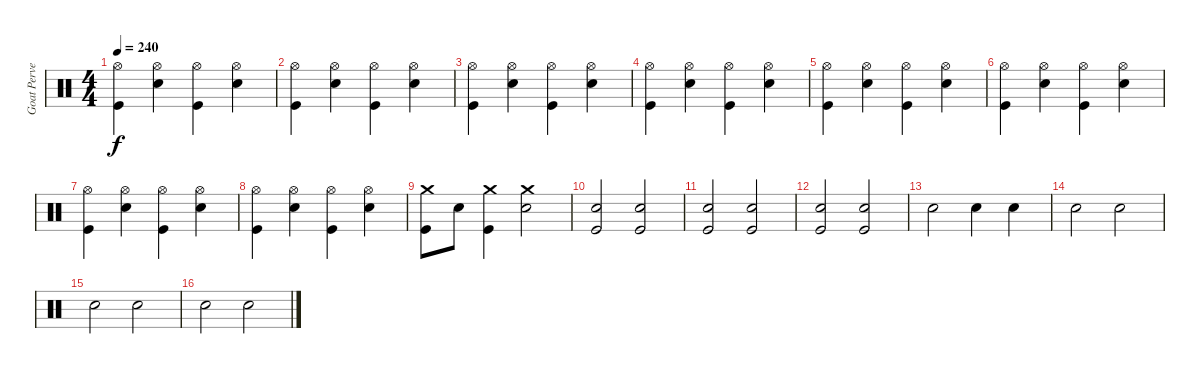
\track ("Goat Pervertor" "Goat Perve") {instrument percussion}
\staff {score}
\articulation defaults
\ts (4 4)
\tempo 240
\clef neutral
\ks c
("Kick (hit)" "Hi-Hat (open)").4{dy f} ("Snare (hit) 2" "Hi-Hat (open)").4 ("Kick (hit)" "Hi-Hat (open)").4 ("Snare (hit) 2" "Hi-Hat (open)").4 |
("Kick (hit)" "Hi-Hat (open)").4 ("Snare (hit) 2" "Hi-Hat (open)").4 ("Kick (hit)" "Hi-Hat (open)").4 ("Snare (hit) 2" "Hi-Hat (open)").4 |
("Kick (hit)" "Hi-Hat (open)").4 ("Snare (hit) 2" "Hi-Hat (open)").4 ("Kick (hit)" "Hi-Hat (open)").4 ("Snare (hit) 2" "Hi-Hat (open)").4 |
("Kick (hit)" "Hi-Hat (open)").4 ("Snare (hit) 2" "Hi-Hat (open)").4 ("Kick (hit)" "Hi-Hat (open)").4 ("Snare (hit) 2" "Hi-Hat (open)").4 |
("Kick (hit)" "Hi-Hat (open)").4 ("Snare (hit) 2" "Hi-Hat (open)").4 ("Kick (hit)" "Hi-Hat (open)").4 ("Snare (hit) 2" "Hi-Hat (open)").4 |
("Kick (hit)" "Hi-Hat (open)").4 ("Snare (hit) 2" "Hi-Hat (open)").4 ("Kick (hit)" "Hi-Hat (open)").4 ("Snare (hit) 2" "Hi-Hat (open)").4 |
("Kick (hit)" "Hi-Hat (open)").4 ("Snare (hit) 2" "Hi-Hat (open)").4 ("Kick (hit)" "Hi-Hat (open)").4 ("Snare (hit) 2" "Hi-Hat (open)").4 |
("Kick (hit)" "Hi-Hat (open)").4 ("Snare (hit) 2" "Hi-Hat (open)").4 ("Kick (hit)" "Hi-Hat (open)").4 ("Snare (hit) 2" "Hi-Hat (open)").4 |
("Kick (hit)" "Crash medium (hit)").8 "Snare (hit) 2".8 ("Kick (hit)" "Crash medium (hit)").4 ("Snare (hit) 2" "Crash medium (hit)").2 |
("Snare (hit) 2" "Kick (hit)").2 ("Snare (hit) 2" "Kick (hit)").2 |
("Snare (hit) 2" "Kick (hit)").2 ("Snare (hit) 2" "Kick (hit)").2 |
("Snare (hit) 2" "Kick (hit)").2 ("Snare (hit) 2" "Kick (hit)").2 |
"Snare (hit) 2".2 "Snare (hit) 2".4 "Snare (hit) 2".4 |
"Snare (hit) 2".2 "Snare (hit) 2".2 |
"Snare (hit) 2".2 "Snare (hit) 2".2 |
"Snare (hit) 2".2 "Snare (hit) 2".2
